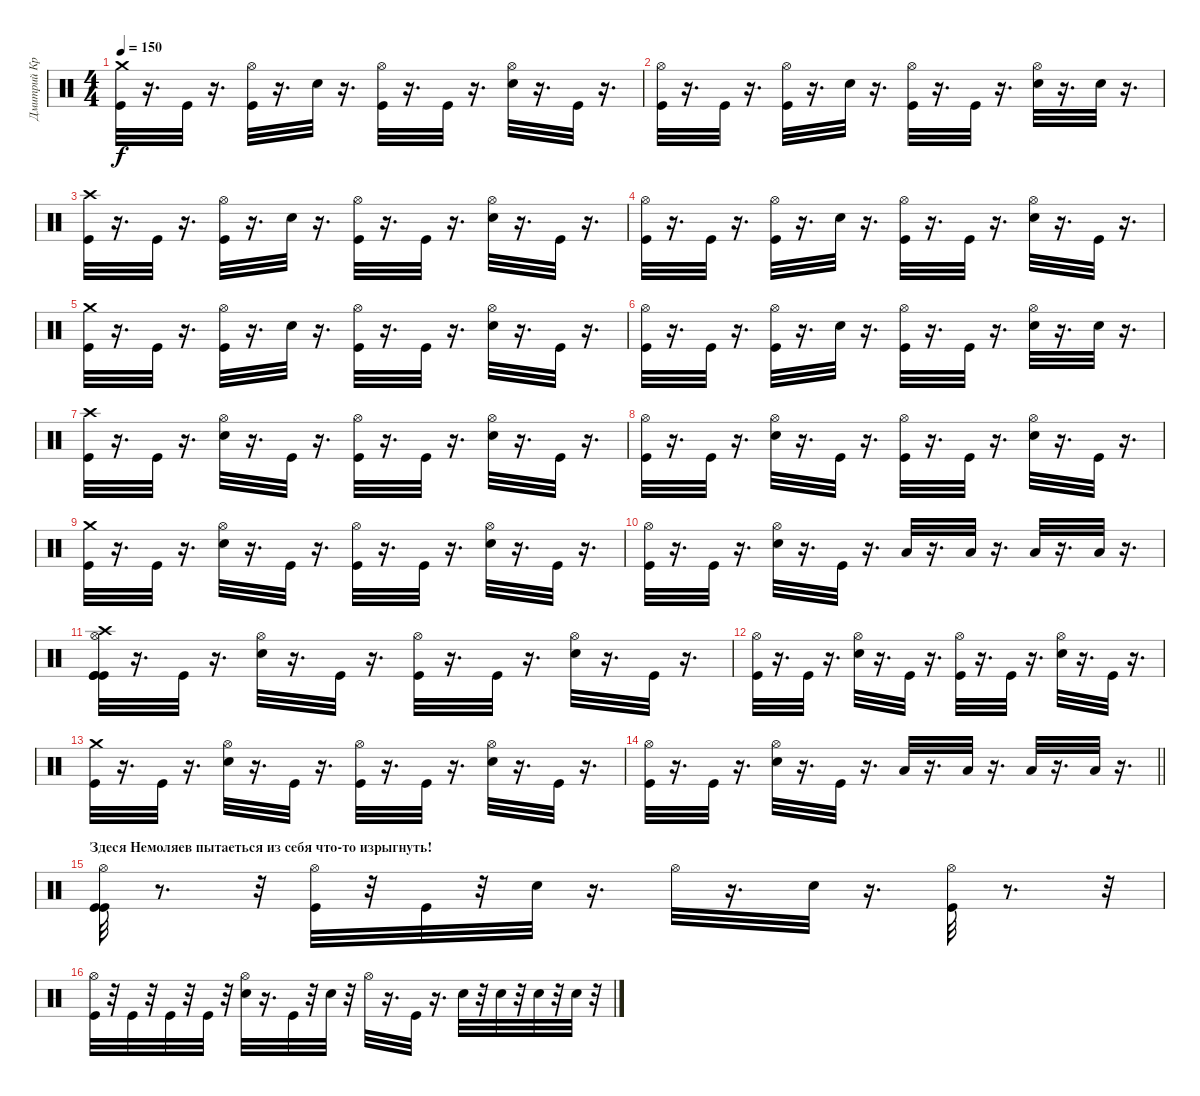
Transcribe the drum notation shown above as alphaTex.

\track ("Дмитрий Кривенков" "Дмитрий Кр") {instrument percussion}
\staff {score}
\articulation defaults
\ts (4 4)
\tempo 150
\clef neutral
\ks c
("Crash medium (hit)" "Kick (hit)").32{dy f} r.16{d} "Kick (hit)".32 r.16{d} ("Hi-Hat (open)" "Kick (hit)").32 r.16{d} "Electric Snare (hit)".32 r.16{d} ("Hi-Hat (open)" "Kick (hit)").32 r.16{d} "Kick (hit)".32 r.16{d} ("Hi-Hat (open)" "Electric Snare (hit)").32 r.16{d} "Kick (hit)".32 r.16{d} |
("Hi-Hat (open)" "Kick (hit)").32 r.16{d} "Kick (hit)".32 r.16{d} ("Hi-Hat (open)" "Kick (hit)").32 r.16{d} "Electric Snare (hit)".32 r.16{d} ("Hi-Hat (open)" "Kick (hit)").32 r.16{d} "Kick (hit)".32 r.16{d} ("Hi-Hat (open)" "Electric Snare (hit)").32 r.16{d} "Electric Snare (hit)".32 r.16{d} |
("Crash high (hit)" "Kick (hit)").32 r.16{d} "Kick (hit)".32 r.16{d} ("Hi-Hat (open)" "Kick (hit)").32 r.16{d} "Electric Snare (hit)".32 r.16{d} ("Hi-Hat (open)" "Kick (hit)").32 r.16{d} "Kick (hit)".32 r.16{d} ("Hi-Hat (open)" "Electric Snare (hit)").32 r.16{d} "Kick (hit)".32 r.16{d} |
("Hi-Hat (open)" "Kick (hit)").32 r.16{d} "Kick (hit)".32 r.16{d} ("Hi-Hat (open)" "Kick (hit)").32 r.16{d} "Electric Snare (hit)".32 r.16{d} ("Hi-Hat (open)" "Kick (hit)").32 r.16{d} "Kick (hit)".32 r.16{d} ("Hi-Hat (open)" "Electric Snare (hit)").32 r.16{d} "Kick (hit)".32 r.16{d} |
("Crash medium (hit)" "Kick (hit)").32 r.16{d} "Kick (hit)".32 r.16{d} ("Hi-Hat (open)" "Kick (hit)").32 r.16{d} "Electric Snare (hit)".32 r.16{d} ("Hi-Hat (open)" "Kick (hit)").32 r.16{d} "Kick (hit)".32 r.16{d} ("Hi-Hat (open)" "Electric Snare (hit)").32 r.16{d} "Kick (hit)".32 r.16{d} |
("Hi-Hat (open)" "Kick (hit)").32 r.16{d} "Kick (hit)".32 r.16{d} ("Hi-Hat (open)" "Kick (hit)").32 r.16{d} "Electric Snare (hit)".32 r.16{d} ("Hi-Hat (open)" "Kick (hit)").32 r.16{d} "Kick (hit)".32 r.16{d} ("Hi-Hat (open)" "Electric Snare (hit)").32 r.16{d} "Electric Snare (hit)".32 r.16{d} |
("Crash high (hit)" "Kick (hit)").32 r.16{d} "Kick (hit)".32 r.16{d} ("Hi-Hat (open)" "Electric Snare (hit)").32 r.16{d} "Kick (hit)".32 r.16{d} ("Hi-Hat (open)" "Kick (hit)").32 r.16{d} "Kick (hit)".32 r.16{d} ("Hi-Hat (open)" "Electric Snare (hit)").32 r.16{d} "Kick (hit)".32 r.16{d} |
("Hi-Hat (open)" "Kick (hit)").32 r.16{d} "Kick (hit)".32 r.16{d} ("Hi-Hat (open)" "Electric Snare (hit)").32 r.16{d} "Kick (hit)".32 r.16{d} ("Hi-Hat (open)" "Kick (hit)").32 r.16{d} "Kick (hit)".32 r.16{d} ("Hi-Hat (open)" "Electric Snare (hit)").32 r.16{d} "Kick (hit)".32 r.16{d} |
("Crash medium (hit)" "Kick (hit)").32 r.16{d} "Kick (hit)".32 r.16{d} ("Hi-Hat (open)" "Electric Snare (hit)").32 r.16{d} "Kick (hit)".32 r.16{d} ("Hi-Hat (open)" "Kick (hit)").32 r.16{d} "Kick (hit)".32 r.16{d} ("Hi-Hat (open)" "Electric Snare (hit)").32 r.16{d} "Kick (hit)".32 r.16{d} |
("Hi-Hat (open)" "Kick (hit)").32 r.16{d} "Kick (hit)".32 r.16{d} ("Hi-Hat (open)" "Electric Snare (hit)").32 r.16{d} "Kick (hit)".32 r.16{d} "Low Tom (hit)".32 r.16{d} "Low Tom (hit)".32 r.16{d} "Low Floor Tom (hit)".32 r.16{d} "Low Floor Tom (hit)".32 r.16{d} |
("Hi-Hat (open)" "Kick (hit)" "Kick (hit)" "Crash high (hit)" "Kick (hit)").32 r.16{d} "Kick (hit)".32 r.16{d} ("Hi-Hat (open)" "Electric Snare (hit)").32 r.16{d} "Kick (hit)".32 r.16{d} ("Hi-Hat (open)" "Kick (hit)").32 r.16{d} "Kick (hit)".32 r.16{d} ("Hi-Hat (open)" "Electric Snare (hit)").32 r.16{d} "Kick (hit)".32 r.16{d} |
("Hi-Hat (open)" "Kick (hit)").32 r.16{d} "Kick (hit)".32 r.16{d} ("Hi-Hat (open)" "Electric Snare (hit)").32 r.16{d} "Kick (hit)".32 r.16{d} ("Hi-Hat (open)" "Kick (hit)").32 r.16{d} "Kick (hit)".32 r.16{d} ("Hi-Hat (open)" "Electric Snare (hit)").32 r.16{d} "Kick (hit)".32 r.16{d} |
("Crash medium (hit)" "Kick (hit)").32 r.16{d} "Kick (hit)".32 r.16{d} ("Hi-Hat (open)" "Electric Snare (hit)").32 r.16{d} "Kick (hit)".32 r.16{d} ("Hi-Hat (open)" "Kick (hit)").32 r.16{d} "Kick (hit)".32 r.16{d} ("Hi-Hat (open)" "Electric Snare (hit)").32 r.16{d} "Kick (hit)".32 r.16{d} |
\barLineRight lightlight
("Hi-Hat (open)" "Kick (hit)").32 r.16{d} "Kick (hit)".32 r.16{d} ("Hi-Hat (open)" "Electric Snare (hit)").32 r.16{d} "Kick (hit)".32 r.16{d} "Low Tom (hit)".32 r.16{d} "Low Tom (hit)".32 r.16{d} "Low Floor Tom (hit)".32 r.16{d} "Low Floor Tom (hit)".32 r.16{d} |
\section ("" "Здеся Немоляев пытаеться из себя что-то изрыгнуть!")
("Hi-Hat (open)" "Kick (hit)" "Kick (hit)").32 r.8{d} r.32 ("Hi-Hat (open)" "Kick (hit)").32 r.32 "Kick (hit)".32 r.32 "Electric Snare (hit)".32 r.16{d} "Hi-Hat (open)".32 r.16{d} "Electric Snare (hit)".32 r.16{d} ("Hi-Hat (open)" "Kick (hit)").32 r.8{d} r.32 |
("Hi-Hat (open)" "Kick (hit)").32 r.32 "Kick (hit)".32 r.32 "Kick (hit)".32 r.32 "Kick (hit)".32 r.32 ("Hi-Hat (open)" "Electric Snare (hit)").32 r.16{d} "Kick (hit)".32 r.32 "Electric Snare (hit)".32 r.32 "Hi-Hat (open)".32 r.16{d} "Kick (hit)".32 r.16{d} "Electric Snare (hit)".32 r.32 "Electric Snare (hit)".32 r.32 "Electric Snare (hit)".32 r.32 "Electric Snare (hit)".32 r.32
